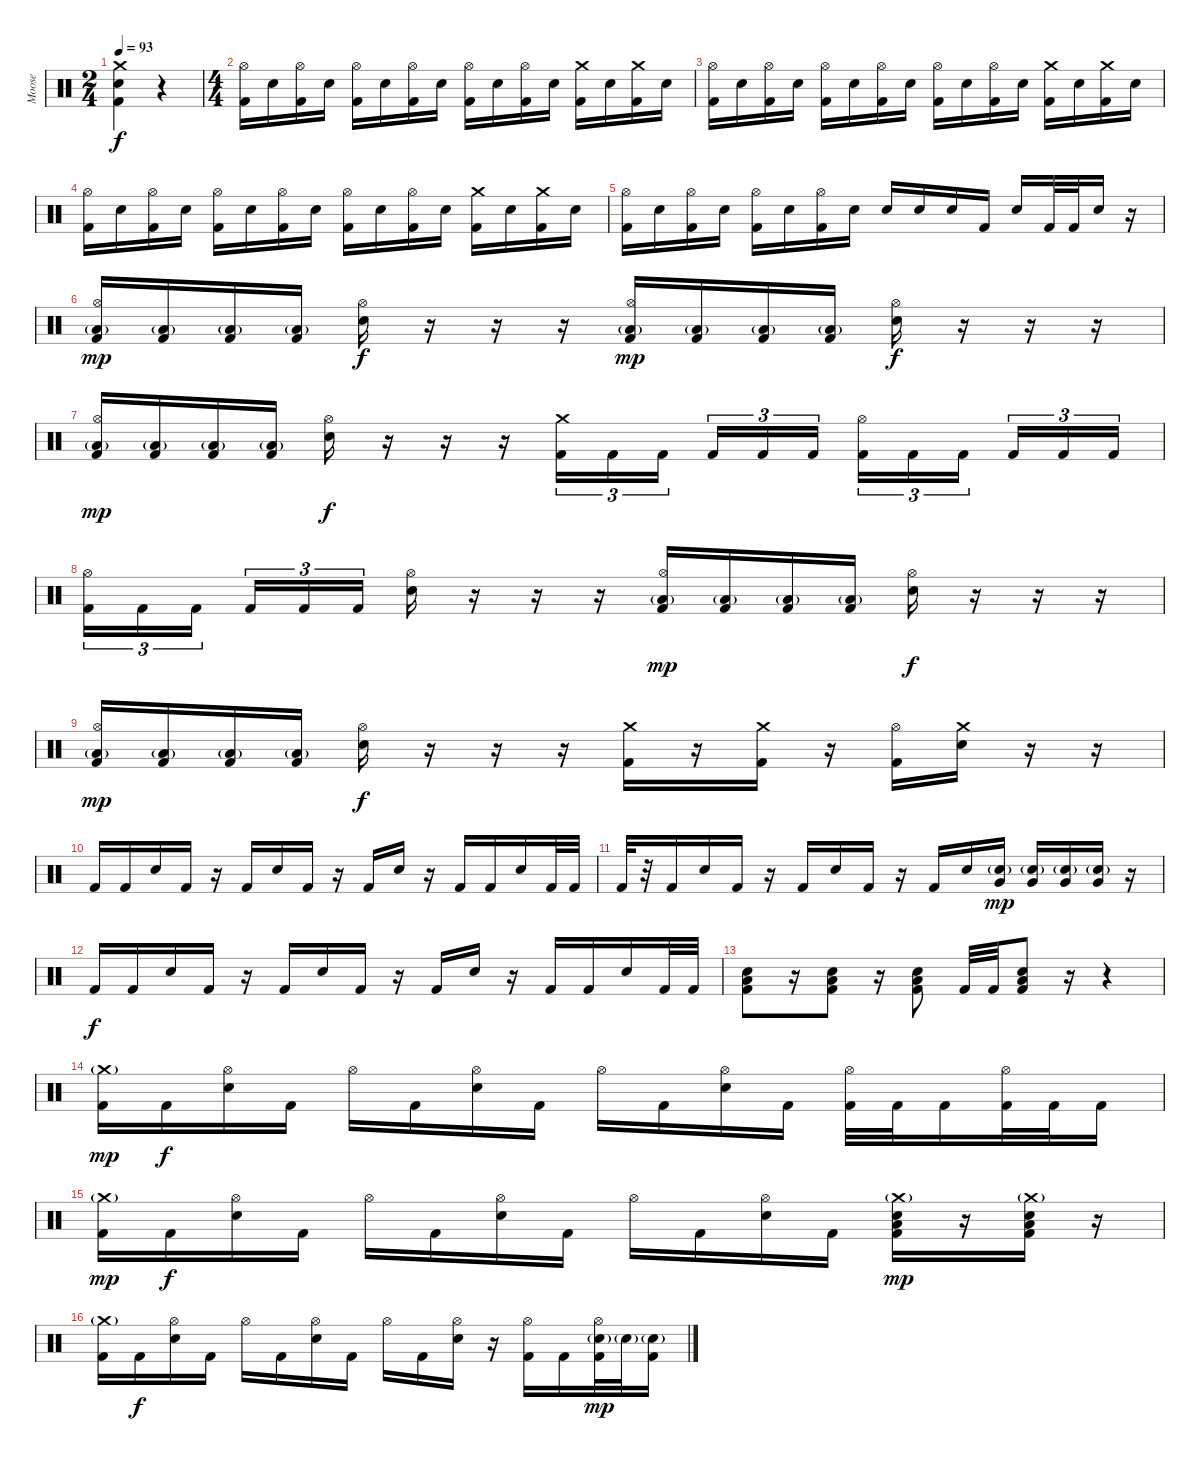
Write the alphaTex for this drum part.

\track ("Moose" "Moose") {instrument percussion}
\staff {score}
\articulation defaults
\ts (2 4)
\tempo 93
\clef neutral
\ks c
("Crash medium (hit)" "Electric Snare (hit)" "Kick (hit) 2").4{dy f} r.4 |
\ts (4 4)
("Hi-Hat (open)" "Kick (hit) 2").16 "Electric Snare (hit)".16 ("Hi-Hat (open)" "Kick (hit) 2").16 "Electric Snare (hit)".16 ("Hi-Hat (open)" "Kick (hit) 2").16 "Electric Snare (hit)".16 ("Hi-Hat (open)" "Kick (hit) 2").16 "Electric Snare (hit)".16 ("Hi-Hat (open)" "Kick (hit) 2").16 "Electric Snare (hit)".16 ("Hi-Hat (open)" "Kick (hit) 2").16 "Electric Snare (hit)".16 ("Crash medium (hit)" "Kick (hit) 2").16 "Electric Snare (hit)".16 ("Crash medium (hit)" "Kick (hit) 2").16 "Electric Snare (hit)".16 |
("Hi-Hat (open)" "Kick (hit) 2").16 "Electric Snare (hit)".16 ("Hi-Hat (open)" "Kick (hit) 2").16 "Electric Snare (hit)".16 ("Hi-Hat (open)" "Kick (hit) 2").16 "Electric Snare (hit)".16 ("Hi-Hat (open)" "Kick (hit) 2").16 "Electric Snare (hit)".16 ("Hi-Hat (open)" "Kick (hit) 2").16 "Electric Snare (hit)".16 ("Hi-Hat (open)" "Kick (hit) 2").16 "Electric Snare (hit)".16 ("Crash medium (hit)" "Kick (hit) 2").16 "Electric Snare (hit)".16 ("Crash medium (hit)" "Kick (hit) 2").16 "Electric Snare (hit)".16 |
("Hi-Hat (open)" "Kick (hit) 2").16 "Electric Snare (hit)".16 ("Hi-Hat (open)" "Kick (hit) 2").16 "Electric Snare (hit)".16 ("Hi-Hat (open)" "Kick (hit) 2").16 "Electric Snare (hit)".16 ("Hi-Hat (open)" "Kick (hit) 2").16 "Electric Snare (hit)".16 ("Hi-Hat (open)" "Kick (hit) 2").16 "Electric Snare (hit)".16 ("Hi-Hat (open)" "Kick (hit) 2").16 "Electric Snare (hit)".16 ("Crash medium (hit)" "Kick (hit) 2").16 "Electric Snare (hit)".16 ("Crash medium (hit)" "Kick (hit) 2").16 "Electric Snare (hit)".16 |
("Hi-Hat (open)" "Kick (hit) 2").16 "Electric Snare (hit)".16 ("Hi-Hat (open)" "Kick (hit) 2").16 "Electric Snare (hit)".16 ("Hi-Hat (open)" "Kick (hit) 2").16 "Electric Snare (hit)".16 ("Hi-Hat (open)" "Kick (hit) 2").16 "Electric Snare (hit)".16 "Electric Snare (hit)".16 "Electric Snare (hit)".16 "Electric Snare (hit)".16 "Kick (hit) 2".16 "Electric Snare (hit)".16 "Kick (hit) 2".32 "Kick (hit) 2".32 "Electric Snare (hit)".16 r.16 |
("Hi-Hat (open)" "Low Floor Tom (hit)"{g} "Kick (hit) 2").16{dy mp} ("Low Floor Tom (hit)"{g} "Kick (hit) 2").16 ("Low Floor Tom (hit)"{g} "Kick (hit) 2").16 ("Low Floor Tom (hit)"{g} "Kick (hit) 2").16 ("Hi-Hat (open)" "Electric Snare (hit)").16{dy f} r.16 r.16 r.16 ("Hi-Hat (open)" "Low Floor Tom (hit)"{g} "Kick (hit) 2").16{dy mp} ("Low Floor Tom (hit)"{g} "Kick (hit) 2").16 ("Low Floor Tom (hit)"{g} "Kick (hit) 2").16 ("Low Floor Tom (hit)"{g} "Kick (hit) 2").16 ("Hi-Hat (open)" "Electric Snare (hit)").16{dy f} r.16 r.16 r.16 |
("Hi-Hat (open)" "Low Floor Tom (hit)"{g} "Kick (hit) 2").16{dy mp} ("Low Floor Tom (hit)"{g} "Kick (hit) 2").16 ("Low Floor Tom (hit)"{g} "Kick (hit) 2").16 ("Low Floor Tom (hit)"{g} "Kick (hit) 2").16 ("Hi-Hat (open)" "Electric Snare (hit)").16{dy f} r.16 r.16 r.16 ("Crash medium (hit)" "Kick (hit) 2").16{tu (3 2)} "Kick (hit) 2".16{tu (3 2)} "Kick (hit) 2".16{tu (3 2) beam splitsecondary} "Kick (hit) 2".16{tu (3 2)} "Kick (hit) 2".16{tu (3 2)} "Kick (hit) 2".16{tu (3 2)} ("Hi-Hat (open)" "Kick (hit) 2").16{tu (3 2)} "Kick (hit) 2".16{tu (3 2)} "Kick (hit) 2".16{tu (3 2) beam splitsecondary} "Kick (hit) 2".16{tu (3 2)} "Kick (hit) 2".16{tu (3 2)} "Kick (hit) 2".16{tu (3 2)} |
("Hi-Hat (open)" "Kick (hit) 2").16{tu (3 2)} "Kick (hit) 2".16{tu (3 2)} "Kick (hit) 2".16{tu (3 2) beam splitsecondary} "Kick (hit) 2".16{tu (3 2)} "Kick (hit) 2".16{tu (3 2)} "Kick (hit) 2".16{tu (3 2)} ("Hi-Hat (open)" "Electric Snare (hit)").16 r.16 r.16 r.16 ("Hi-Hat (open)" "Low Floor Tom (hit)"{g} "Kick (hit) 2").16{dy mp} ("Low Floor Tom (hit)"{g} "Kick (hit) 2").16 ("Low Floor Tom (hit)"{g} "Kick (hit) 2").16 ("Low Floor Tom (hit)"{g} "Kick (hit) 2").16 ("Hi-Hat (open)" "Electric Snare (hit)").16{dy f} r.16 r.16 r.16 |
("Hi-Hat (open)" "Low Floor Tom (hit)"{g} "Kick (hit) 2").16{dy mp} ("Low Floor Tom (hit)"{g} "Kick (hit) 2").16 ("Low Floor Tom (hit)"{g} "Kick (hit) 2").16 ("Low Floor Tom (hit)"{g} "Kick (hit) 2").16 ("Hi-Hat (open)" "Electric Snare (hit)").16{dy f} r.16 r.16 r.16 ("Crash medium (hit)" "Kick (hit) 2").16 r.16 ("Crash medium (hit)" "Kick (hit) 2").16 r.16 ("Hi-Hat (open)" "Kick (hit) 2").16 ("Crash medium (hit)" "Electric Snare (hit)").16 r.16 r.16 |
"Kick (hit) 2".16 "Kick (hit) 2".16 "Electric Snare (hit)".16 "Kick (hit) 2".16 r.16 "Kick (hit) 2".16 "Electric Snare (hit)".16 "Kick (hit) 2".16 r.16 "Kick (hit) 2".16 "Electric Snare (hit)".16 r.16 "Kick (hit) 2".16 "Kick (hit) 2".16 "Electric Snare (hit)".16 "Kick (hit) 2".32 "Kick (hit) 2".32 |
"Kick (hit) 2".32 r.32 "Kick (hit) 2".16 "Electric Snare (hit)".16 "Kick (hit) 2".16 r.16 "Kick (hit) 2".16 "Electric Snare (hit)".16 "Kick (hit) 2".16 r.16 "Kick (hit) 2".16 "Electric Snare (hit)".16 ("Very Low Tom (hit)" "Electric Snare (hit)"{g}).16{dy mp} ("Very Low Tom (hit)" "Electric Snare (hit)"{g}).16 ("Very Low Tom (hit)" "Electric Snare (hit)"{g}).16 ("Very Low Tom (hit)" "Electric Snare (hit)"{g}).16 r.16 |
"Kick (hit) 2".16{dy f} "Kick (hit) 2".16 "Electric Snare (hit)".16 "Kick (hit) 2".16 r.16 "Kick (hit) 2".16 "Electric Snare (hit)".16 "Kick (hit) 2".16 r.16 "Kick (hit) 2".16 "Electric Snare (hit)".16 r.16 "Kick (hit) 2".16 "Kick (hit) 2".16 "Electric Snare (hit)".16 "Kick (hit) 2".32 "Kick (hit) 2".32 |
("Low Floor Tom (hit)" "Electric Snare (hit)" "Kick (hit) 2").8 r.16 ("Low Floor Tom (hit)" "Electric Snare (hit)" "Kick (hit) 2").8 r.16 ("Low Floor Tom (hit)" "Electric Snare (hit)" "Kick (hit) 2").8 "Kick (hit) 2".32 "Kick (hit) 2".32 ("Low Floor Tom (hit)" "Electric Snare (hit)" "Kick (hit) 2").8 r.16 r.4 |
("Crash medium (hit)"{g} "Kick (hit) 2").16{dy mp} "Kick (hit) 2".16{dy f} ("Hi-Hat (open)" "Electric Snare (hit)").16 "Kick (hit) 2".16 "Hi-Hat (open)".16 "Kick (hit) 2".16 ("Hi-Hat (open)" "Electric Snare (hit)").16 "Kick (hit) 2".16 "Hi-Hat (open)".16 "Kick (hit) 2".16 ("Hi-Hat (open)" "Electric Snare (hit)").16 "Kick (hit) 2".16 ("Hi-Hat (open)" "Kick (hit) 2").32 "Kick (hit) 2".32 "Kick (hit) 2".16 ("Hi-Hat (open)" "Kick (hit) 2").32 "Kick (hit) 2".32 "Kick (hit) 2".16 |
("Crash medium (hit)"{g} "Kick (hit) 2").16{dy mp} "Kick (hit) 2".16{dy f} ("Hi-Hat (open)" "Electric Snare (hit)").16 "Kick (hit) 2".16 "Hi-Hat (open)".16 "Kick (hit) 2".16 ("Hi-Hat (open)" "Electric Snare (hit)").16 "Kick (hit) 2".16 "Hi-Hat (open)".16 "Kick (hit) 2".16 ("Hi-Hat (open)" "Electric Snare (hit)").16 "Kick (hit) 2".16 ("Crash medium (hit)"{g} "Low Floor Tom (hit)" "Electric Snare (hit)" "Kick (hit) 2").16{dy mp} r.16 ("Crash medium (hit)"{g} "Low Floor Tom (hit)" "Electric Snare (hit)" "Kick (hit) 2").16 r.16 |
("Crash medium (hit)"{g} "Kick (hit) 2").16 "Kick (hit) 2".16{dy f} ("Hi-Hat (open)" "Electric Snare (hit)").16 "Kick (hit) 2".16 "Hi-Hat (open)".16 "Kick (hit) 2".16 ("Hi-Hat (open)" "Electric Snare (hit)").16 "Kick (hit) 2".16 "Hi-Hat (open)".16 "Kick (hit) 2".16 ("Hi-Hat (open)" "Electric Snare (hit)").16 r.16 ("Hi-Hat (open)" "Kick (hit) 2").16 "Kick (hit) 2".16 ("Hi-Hat (open)" "Electric Snare (hit)"{g} "Kick (hit) 2").32{dy mp} "Electric Snare (hit)"{g}.32 ("Electric Snare (hit)"{g} "Kick (hit) 2").16
